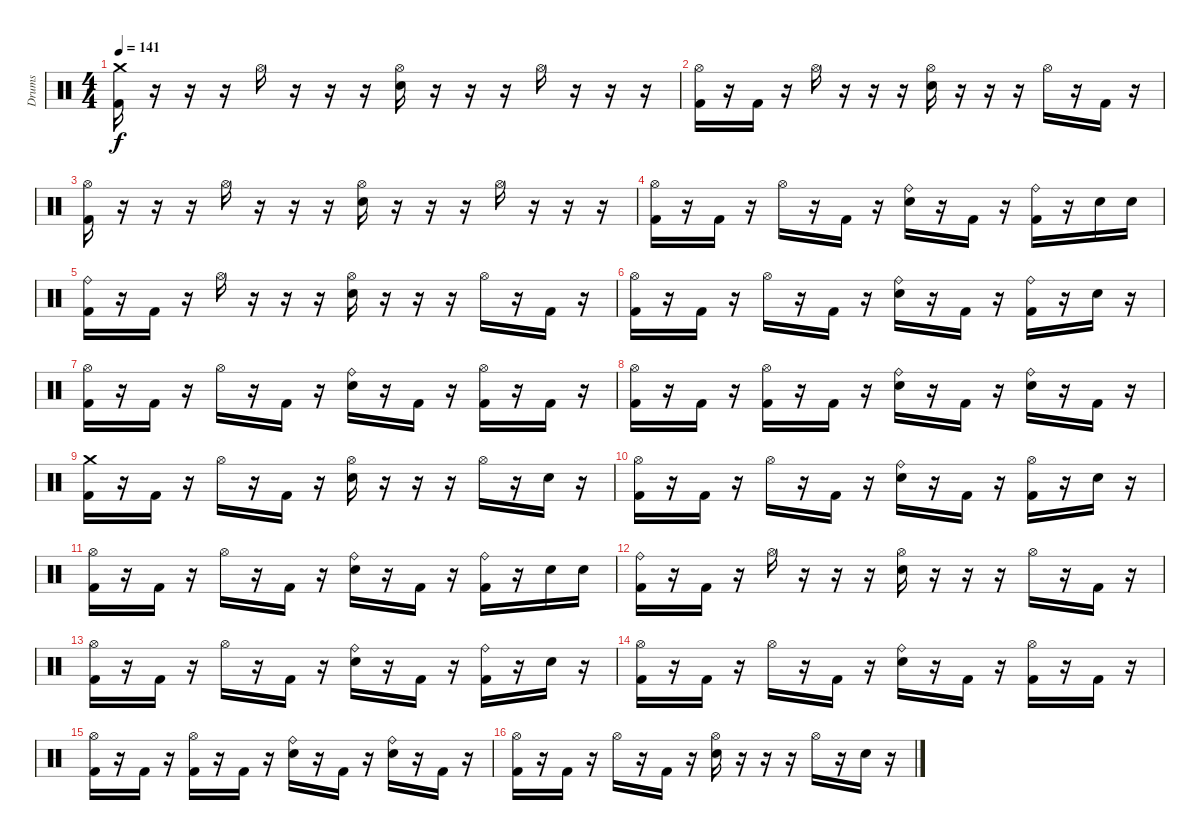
\track ("Drums" "Drums") {instrument percussion}
\staff {score}
\articulation defaults
\ts (4 4)
\section ("" "")
\tempo 141
\clef neutral
\ks c
("Crash medium (hit)" "Kick (hit) 2").16{dy f} r.16 r.16 r.16 "Hi-Hat (open)".16 r.16 r.16 r.16 ("Hi-Hat (open)" "Electric Snare (hit)").16 r.16 r.16 r.16 "Hi-Hat (open)".16 r.16 r.16 r.16 |
("Hi-Hat (open)" "Kick (hit) 2").16 r.16 "Kick (hit) 2".16 r.16 "Hi-Hat (open)".16 r.16 r.16 r.16 ("Hi-Hat (open)" "Electric Snare (hit)").16 r.16 r.16 r.16 "Hi-Hat (open)".16 r.16 "Kick (hit) 2".16 r.16 |
("Hi-Hat (open)" "Kick (hit) 2").16 r.16 r.16 r.16 "Hi-Hat (open)".16 r.16 r.16 r.16 ("Hi-Hat (open)" "Electric Snare (hit)").16 r.16 r.16 r.16 "Hi-Hat (open)".16 r.16 r.16 r.16 |
("Hi-Hat (open)" "Kick (hit) 2").16 r.16 "Kick (hit) 2".16 r.16 "Hi-Hat (open)".16 r.16 "Kick (hit) 2".16 r.16 ("Ride (bell)" "Electric Snare (hit)").16 r.16 "Kick (hit) 2".16 r.16 ("Ride (bell)" "Kick (hit) 2").16 r.16 "Electric Snare (hit)".16 "Electric Snare (hit)".16 |
("Ride (bell)" "Kick (hit) 2").16 r.16 "Kick (hit) 2".16 r.16 "Hi-Hat (open)".16 r.16 r.16 r.16 ("Hi-Hat (open)" "Electric Snare (hit)").16 r.16 r.16 r.16 "Hi-Hat (open)".16 r.16 "Kick (hit) 2".16 r.16 |
("Hi-Hat (open)" "Kick (hit) 2").16 r.16 "Kick (hit) 2".16 r.16 "Hi-Hat (open)".16 r.16 "Kick (hit) 2".16 r.16 ("Ride (bell)" "Electric Snare (hit)").16 r.16 "Kick (hit) 2".16 r.16 ("Ride (bell)" "Kick (hit) 2").16 r.16 "Electric Snare (hit)".16 r.16 |
("Hi-Hat (open)" "Kick (hit) 2").16 r.16 "Kick (hit) 2".16 r.16 "Hi-Hat (open)".16 r.16 "Kick (hit) 2".16 r.16 ("Ride (bell)" "Electric Snare (hit)").16 r.16 "Kick (hit) 2".16 r.16 ("Hi-Hat (open)" "Kick (hit) 2").16 r.16 "Kick (hit) 2".16 r.16 |
("Hi-Hat (open)" "Kick (hit) 2").16 r.16 "Kick (hit) 2".16 r.16 ("Hi-Hat (open)" "Kick (hit) 2").16 r.16 "Kick (hit) 2".16 r.16 ("Ride (bell)" "Electric Snare (hit)").16 r.16 "Kick (hit) 2".16 r.16 ("Ride (bell)" "Electric Snare (hit)").16 r.16 "Kick (hit) 2".16 r.16 |
("Crash medium (hit)" "Kick (hit) 2").16 r.16 "Kick (hit) 2".16 r.16 "Hi-Hat (open)".16 r.16 "Kick (hit) 2".16 r.16 ("Hi-Hat (open)" "Electric Snare (hit)").16 r.16 r.16 r.16 "Hi-Hat (open)".16 r.16 "Electric Snare (hit)".16 r.16 |
("Hi-Hat (open)" "Kick (hit) 2").16 r.16 "Kick (hit) 2".16 r.16 "Hi-Hat (open)".16 r.16 "Kick (hit) 2".16 r.16 ("Ride (bell)" "Electric Snare (hit)").16 r.16 "Kick (hit) 2".16 r.16 ("Hi-Hat (open)" "Kick (hit) 2").16 r.16 "Electric Snare (hit)".16 r.16 |
("Hi-Hat (open)" "Kick (hit) 2").16 r.16 "Kick (hit) 2".16 r.16 "Hi-Hat (open)".16 r.16 "Kick (hit) 2".16 r.16 ("Ride (bell)" "Electric Snare (hit)").16 r.16 "Kick (hit) 2".16 r.16 ("Ride (bell)" "Kick (hit) 2").16 r.16 "Electric Snare (hit)".16 "Electric Snare (hit)".16 |
("Ride (bell)" "Kick (hit) 2").16 r.16 "Kick (hit) 2".16 r.16 "Hi-Hat (open)".16 r.16 r.16 r.16 ("Hi-Hat (open)" "Electric Snare (hit)").16 r.16 r.16 r.16 "Hi-Hat (open)".16 r.16 "Kick (hit) 2".16 r.16 |
("Hi-Hat (open)" "Kick (hit) 2").16{volume 0} r.16 "Kick (hit) 2".16 r.16 "Hi-Hat (open)".16 r.16 "Kick (hit) 2".16 r.16 ("Ride (bell)" "Electric Snare (hit)").16 r.16 "Kick (hit) 2".16 r.16 ("Ride (bell)" "Kick (hit) 2").16 r.16 "Electric Snare (hit)".16 r.16 |
("Hi-Hat (open)" "Kick (hit) 2").16 r.16 "Kick (hit) 2".16 r.16 "Hi-Hat (open)".16 r.16 "Kick (hit) 2".16 r.16 ("Ride (bell)" "Electric Snare (hit)").16 r.16 "Kick (hit) 2".16 r.16 ("Hi-Hat (open)" "Kick (hit) 2").16 r.16 "Kick (hit) 2".16 r.16 |
("Hi-Hat (open)" "Kick (hit) 2").16 r.16 "Kick (hit) 2".16 r.16 ("Hi-Hat (open)" "Kick (hit) 2").16 r.16 "Kick (hit) 2".16 r.16 ("Ride (bell)" "Electric Snare (hit)").16 r.16 "Kick (hit) 2".16 r.16 ("Ride (bell)" "Electric Snare (hit)").16 r.16 "Kick (hit) 2".16 r.16 |
("Hi-Hat (open)" "Kick (hit) 2").16 r.16 "Kick (hit) 2".16 r.16 "Hi-Hat (open)".16 r.16 "Kick (hit) 2".16 r.16 ("Hi-Hat (open)" "Electric Snare (hit)").16 r.16 r.16 r.16 "Hi-Hat (open)".16 r.16 "Electric Snare (hit)".16 r.16
